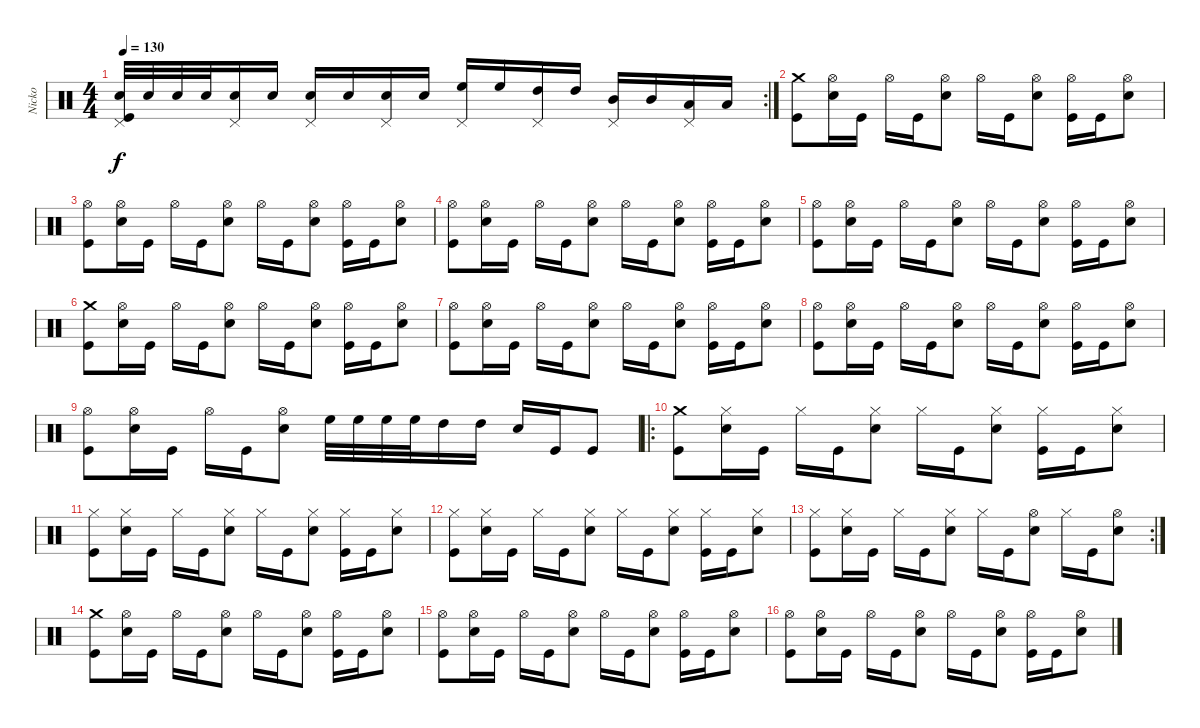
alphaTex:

\track ("Nicko" "Nicko") {instrument percussion}
\staff {score}
\articulation defaults
\rc 2
\ts (4 4)
\tempo 130
\clef neutral
\ks c
("Snare (hit) 2" "Pedal Hi-Hat (hit)" "Kick (hit)").32{dy f} "Snare (hit) 2".32 "Snare (hit) 2".32 "Snare (hit) 2".32 ("Snare (hit) 2" "Pedal Hi-Hat (hit)").16 "Snare (hit) 2".16 ("Snare (hit) 2" "Pedal Hi-Hat (hit)").16 "Snare (hit) 2".16 ("Snare (hit) 2" "Pedal Hi-Hat (hit)").16 "Snare (hit) 2".16 ("High Floor Tom (hit)" "Pedal Hi-Hat (hit)").16 "High Floor Tom (hit)".16 ("High Tom (hit)" "Pedal Hi-Hat (hit)").16 "High Tom (hit)".16 ("Mid Tom (hit)" "Pedal Hi-Hat (hit)").16 "Mid Tom (hit)".16 ("Low Tom (hit)" "Pedal Hi-Hat (hit)").16 "Low Tom (hit)".16 |
("Crash medium (hit)" "Kick (hit)").8 ("Hi-Hat (open)" "Snare (hit) 2").16 "Kick (hit)".16 "Hi-Hat (open)".16 "Kick (hit)".16 ("Hi-Hat (open)" "Snare (hit) 2").8 "Hi-Hat (open)".16 "Kick (hit)".16 ("Hi-Hat (open)" "Snare (hit) 2").8 ("Hi-Hat (open)" "Kick (hit)").16 "Kick (hit)".16 ("Hi-Hat (open)" "Snare (hit) 2").8 |
("Hi-Hat (open)" "Kick (hit)").8 ("Hi-Hat (open)" "Snare (hit) 2").16 "Kick (hit)".16 "Hi-Hat (open)".16 "Kick (hit)".16 ("Hi-Hat (open)" "Snare (hit) 2").8 "Hi-Hat (open)".16 "Kick (hit)".16 ("Hi-Hat (open)" "Snare (hit) 2").8 ("Hi-Hat (open)" "Kick (hit)").16 "Kick (hit)".16 ("Hi-Hat (open)" "Snare (hit) 2").8 |
("Hi-Hat (open)" "Kick (hit)").8 ("Hi-Hat (open)" "Snare (hit) 2").16 "Kick (hit)".16 "Hi-Hat (open)".16 "Kick (hit)".16 ("Hi-Hat (open)" "Snare (hit) 2").8 "Hi-Hat (open)".16 "Kick (hit)".16 ("Hi-Hat (open)" "Snare (hit) 2").8 ("Hi-Hat (open)" "Kick (hit)").16 "Kick (hit)".16 ("Hi-Hat (open)" "Snare (hit) 2").8 |
("Hi-Hat (open)" "Kick (hit)").8 ("Hi-Hat (open)" "Snare (hit) 2").16 "Kick (hit)".16 "Hi-Hat (open)".16 "Kick (hit)".16 ("Hi-Hat (open)" "Snare (hit) 2").8 "Hi-Hat (open)".16 "Kick (hit)".16 ("Hi-Hat (open)" "Snare (hit) 2").8 ("Hi-Hat (open)" "Kick (hit)").16 "Kick (hit)".16 ("Hi-Hat (open)" "Snare (hit) 2").8 |
("Crash medium (hit)" "Kick (hit)").8 ("Hi-Hat (open)" "Snare (hit) 2").16 "Kick (hit)".16 "Hi-Hat (open)".16 "Kick (hit)".16 ("Hi-Hat (open)" "Snare (hit) 2").8 "Hi-Hat (open)".16 "Kick (hit)".16 ("Hi-Hat (open)" "Snare (hit) 2").8 ("Hi-Hat (open)" "Kick (hit)").16 "Kick (hit)".16 ("Hi-Hat (open)" "Snare (hit) 2").8 |
("Hi-Hat (open)" "Kick (hit)").8 ("Hi-Hat (open)" "Snare (hit) 2").16 "Kick (hit)".16 "Hi-Hat (open)".16 "Kick (hit)".16 ("Hi-Hat (open)" "Snare (hit) 2").8 "Hi-Hat (open)".16 "Kick (hit)".16 ("Hi-Hat (open)" "Snare (hit) 2").8 ("Hi-Hat (open)" "Kick (hit)").16 "Kick (hit)".16 ("Hi-Hat (open)" "Snare (hit) 2").8 |
("Hi-Hat (open)" "Kick (hit)").8 ("Hi-Hat (open)" "Snare (hit) 2").16 "Kick (hit)".16 "Hi-Hat (open)".16 "Kick (hit)".16 ("Hi-Hat (open)" "Snare (hit) 2").8 "Hi-Hat (open)".16 "Kick (hit)".16 ("Hi-Hat (open)" "Snare (hit) 2").8 ("Hi-Hat (open)" "Kick (hit)").16 "Kick (hit)".16 ("Hi-Hat (open)" "Snare (hit) 2").8 |
("Hi-Hat (open)" "Kick (hit)").8 ("Hi-Hat (open)" "Snare (hit) 2").16 "Kick (hit)".16 "Hi-Hat (open)".16 "Kick (hit)".16 ("Hi-Hat (open)" "Snare (hit) 2").8 "High Floor Tom (hit)".32 "High Floor Tom (hit)".32 "High Floor Tom (hit)".32 "High Floor Tom (hit)".32 "High Tom (hit)".16 "High Tom (hit)".16 "Snare (hit) 2".16 "Kick (hit)".16 "Kick (hit)".8 |
\ro
("Crash medium (hit)" "Kick (hit)").8 ("Hi-Hat (closed)" "Snare (hit) 2").16 "Kick (hit)".16 "Hi-Hat (closed)".16 "Kick (hit)".16 ("Hi-Hat (closed)" "Snare (hit) 2").8 "Hi-Hat (closed)".16 "Kick (hit)".16 ("Hi-Hat (closed)" "Snare (hit) 2").8 ("Hi-Hat (closed)" "Kick (hit)").16 "Kick (hit)".16 ("Hi-Hat (closed)" "Snare (hit) 2").8 |
("Hi-Hat (closed)" "Kick (hit)").8 ("Hi-Hat (closed)" "Snare (hit) 2").16 "Kick (hit)".16 "Hi-Hat (closed)".16 "Kick (hit)".16 ("Hi-Hat (closed)" "Snare (hit) 2").8 "Hi-Hat (closed)".16 "Kick (hit)".16 ("Hi-Hat (closed)" "Snare (hit) 2").8 ("Hi-Hat (closed)" "Kick (hit)").16 "Kick (hit)".16 ("Hi-Hat (closed)" "Snare (hit) 2").8 |
("Hi-Hat (closed)" "Kick (hit)").8 ("Hi-Hat (closed)" "Snare (hit) 2").16 "Kick (hit)".16 "Hi-Hat (closed)".16 "Kick (hit)".16 ("Hi-Hat (closed)" "Snare (hit) 2").8 "Hi-Hat (closed)".16 "Kick (hit)".16 ("Hi-Hat (closed)" "Snare (hit) 2").8 ("Hi-Hat (closed)" "Kick (hit)").16 "Kick (hit)".16 ("Hi-Hat (closed)" "Snare (hit) 2").8 |
\rc 2
("Hi-Hat (closed)" "Kick (hit)").8 ("Hi-Hat (closed)" "Snare (hit) 2").16 "Kick (hit)".16 "Hi-Hat (closed)".16 "Kick (hit)".16 ("Hi-Hat (closed)" "Snare (hit) 2").8 "Hi-Hat (closed)".16 "Kick (hit)".16 ("Hi-Hat (open)" "Snare (hit) 2").8 "Hi-Hat (closed)".16 "Kick (hit)".16 ("Hi-Hat (open)" "Snare (hit) 2").8 |
("Crash medium (hit)" "Kick (hit)").8 ("Hi-Hat (open)" "Snare (hit) 2").16 "Kick (hit)".16 "Hi-Hat (open)".16 "Kick (hit)".16 ("Hi-Hat (open)" "Snare (hit) 2").8 "Hi-Hat (open)".16 "Kick (hit)".16 ("Hi-Hat (open)" "Snare (hit) 2").8 ("Hi-Hat (open)" "Kick (hit)").16 "Kick (hit)".16 ("Hi-Hat (open)" "Snare (hit) 2").8 |
("Hi-Hat (open)" "Kick (hit)").8 ("Hi-Hat (open)" "Snare (hit) 2").16 "Kick (hit)".16 "Hi-Hat (open)".16 "Kick (hit)".16 ("Hi-Hat (open)" "Snare (hit) 2").8 "Hi-Hat (open)".16 "Kick (hit)".16 ("Hi-Hat (open)" "Snare (hit) 2").8 ("Hi-Hat (open)" "Kick (hit)").16 "Kick (hit)".16 ("Hi-Hat (open)" "Snare (hit) 2").8 |
("Hi-Hat (open)" "Kick (hit)").8 ("Hi-Hat (open)" "Snare (hit) 2").16 "Kick (hit)".16 "Hi-Hat (open)".16 "Kick (hit)".16 ("Hi-Hat (open)" "Snare (hit) 2").8 "Hi-Hat (open)".16 "Kick (hit)".16 ("Hi-Hat (open)" "Snare (hit) 2").8 ("Hi-Hat (open)" "Kick (hit)").16 "Kick (hit)".16 ("Hi-Hat (open)" "Snare (hit) 2").8
